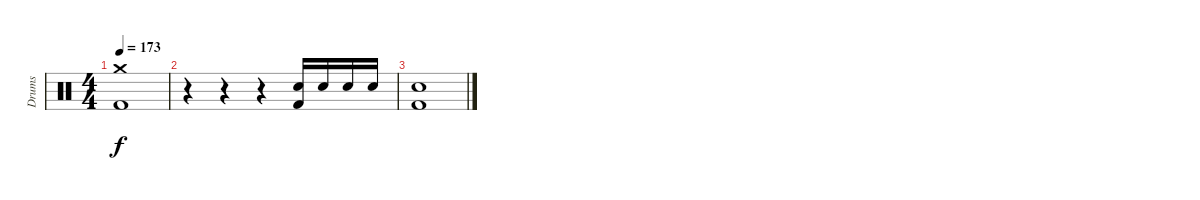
\track ("Drums" "Drums") {instrument percussion}
\staff {score}
\articulation defaults
\ts (4 4)
\tempo 173
\clef neutral
\ks c
("Crash medium (hit)" "Kick (hit) 2").1{dy f} |
r.4 r.4 r.4 ("Electric Snare (hit)" "Kick (hit) 2").16 "Electric Snare (hit)".16 "Electric Snare (hit)".16 "Electric Snare (hit)".16 |
("Electric Snare (hit)" "Kick (hit) 2").1
